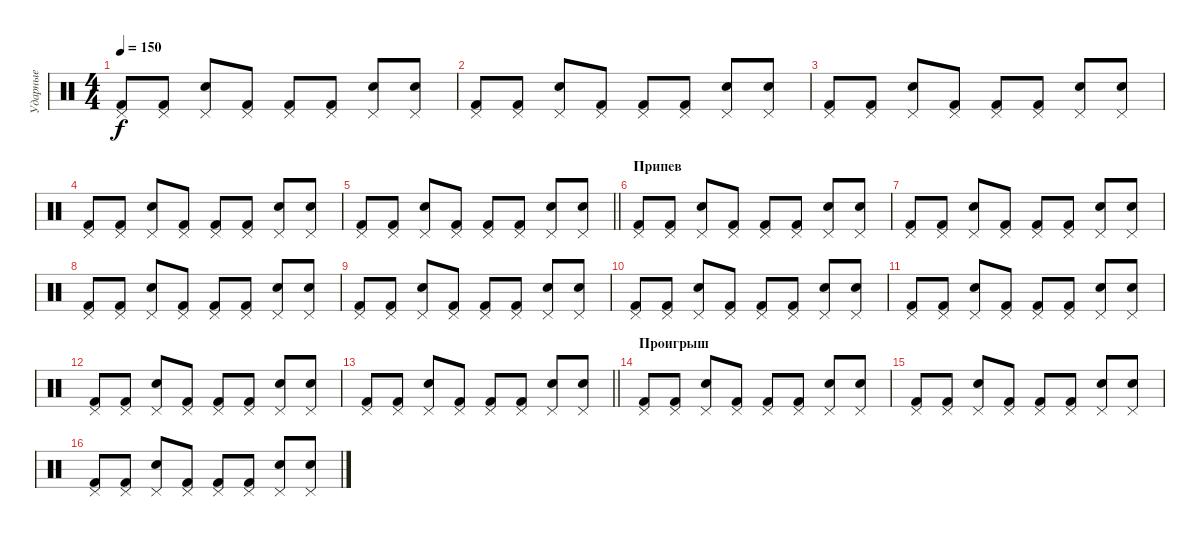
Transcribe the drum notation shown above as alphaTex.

\track ("Ударные" "Ударные") {instrument percussion}
\staff {score}
\articulation defaults
\ts (4 4)
\tempo 150
\clef neutral
\ks c
("Pedal Hi-Hat (hit)" "Kick (hit) 2").8{dy f} ("Pedal Hi-Hat (hit)" "Kick (hit) 2").8 ("Pedal Hi-Hat (hit)" "Electric Snare (hit)").8 ("Pedal Hi-Hat (hit)" "Kick (hit) 2").8 ("Pedal Hi-Hat (hit)" "Kick (hit) 2").8 ("Pedal Hi-Hat (hit)" "Kick (hit) 2").8 ("Pedal Hi-Hat (hit)" "Electric Snare (hit)").8 ("Pedal Hi-Hat (hit)" "Electric Snare (hit)").8 |
("Pedal Hi-Hat (hit)" "Kick (hit) 2").8 ("Pedal Hi-Hat (hit)" "Kick (hit) 2").8 ("Pedal Hi-Hat (hit)" "Electric Snare (hit)").8 ("Pedal Hi-Hat (hit)" "Kick (hit) 2").8 ("Pedal Hi-Hat (hit)" "Kick (hit) 2").8 ("Pedal Hi-Hat (hit)" "Kick (hit) 2").8 ("Pedal Hi-Hat (hit)" "Electric Snare (hit)").8 ("Pedal Hi-Hat (hit)" "Electric Snare (hit)").8 |
("Pedal Hi-Hat (hit)" "Kick (hit) 2").8 ("Pedal Hi-Hat (hit)" "Kick (hit) 2").8 ("Pedal Hi-Hat (hit)" "Electric Snare (hit)").8 ("Pedal Hi-Hat (hit)" "Kick (hit) 2").8 ("Pedal Hi-Hat (hit)" "Kick (hit) 2").8 ("Pedal Hi-Hat (hit)" "Kick (hit) 2").8 ("Pedal Hi-Hat (hit)" "Electric Snare (hit)").8 ("Pedal Hi-Hat (hit)" "Electric Snare (hit)").8 |
("Pedal Hi-Hat (hit)" "Kick (hit) 2").8 ("Pedal Hi-Hat (hit)" "Kick (hit) 2").8 ("Pedal Hi-Hat (hit)" "Electric Snare (hit)").8 ("Pedal Hi-Hat (hit)" "Kick (hit) 2").8 ("Pedal Hi-Hat (hit)" "Kick (hit) 2").8 ("Pedal Hi-Hat (hit)" "Kick (hit) 2").8 ("Pedal Hi-Hat (hit)" "Electric Snare (hit)").8 ("Pedal Hi-Hat (hit)" "Electric Snare (hit)").8 |
\barLineRight lightlight
("Pedal Hi-Hat (hit)" "Kick (hit) 2").8 ("Pedal Hi-Hat (hit)" "Kick (hit) 2").8 ("Pedal Hi-Hat (hit)" "Electric Snare (hit)").8 ("Pedal Hi-Hat (hit)" "Kick (hit) 2").8 ("Pedal Hi-Hat (hit)" "Kick (hit) 2").8 ("Pedal Hi-Hat (hit)" "Kick (hit) 2").8 ("Pedal Hi-Hat (hit)" "Electric Snare (hit)").8 ("Pedal Hi-Hat (hit)" "Electric Snare (hit)").8 |
\section ("" "Припев")
("Pedal Hi-Hat (hit)" "Kick (hit) 2").8 ("Pedal Hi-Hat (hit)" "Kick (hit) 2").8 ("Pedal Hi-Hat (hit)" "Electric Snare (hit)").8 ("Pedal Hi-Hat (hit)" "Kick (hit) 2").8 ("Pedal Hi-Hat (hit)" "Kick (hit) 2").8 ("Pedal Hi-Hat (hit)" "Kick (hit) 2").8 ("Pedal Hi-Hat (hit)" "Electric Snare (hit)").8 ("Pedal Hi-Hat (hit)" "Electric Snare (hit)").8 |
("Pedal Hi-Hat (hit)" "Kick (hit) 2").8 ("Pedal Hi-Hat (hit)" "Kick (hit) 2").8 ("Pedal Hi-Hat (hit)" "Electric Snare (hit)").8 ("Pedal Hi-Hat (hit)" "Kick (hit) 2").8 ("Pedal Hi-Hat (hit)" "Kick (hit) 2").8 ("Pedal Hi-Hat (hit)" "Kick (hit) 2").8 ("Pedal Hi-Hat (hit)" "Electric Snare (hit)").8 ("Pedal Hi-Hat (hit)" "Electric Snare (hit)").8 |
("Pedal Hi-Hat (hit)" "Kick (hit) 2").8 ("Pedal Hi-Hat (hit)" "Kick (hit) 2").8 ("Pedal Hi-Hat (hit)" "Electric Snare (hit)").8 ("Pedal Hi-Hat (hit)" "Kick (hit) 2").8 ("Pedal Hi-Hat (hit)" "Kick (hit) 2").8 ("Pedal Hi-Hat (hit)" "Kick (hit) 2").8 ("Pedal Hi-Hat (hit)" "Electric Snare (hit)").8 ("Pedal Hi-Hat (hit)" "Electric Snare (hit)").8 |
("Pedal Hi-Hat (hit)" "Kick (hit) 2").8 ("Pedal Hi-Hat (hit)" "Kick (hit) 2").8 ("Pedal Hi-Hat (hit)" "Electric Snare (hit)").8 ("Pedal Hi-Hat (hit)" "Kick (hit) 2").8 ("Pedal Hi-Hat (hit)" "Kick (hit) 2").8 ("Pedal Hi-Hat (hit)" "Kick (hit) 2").8 ("Pedal Hi-Hat (hit)" "Electric Snare (hit)").8 ("Pedal Hi-Hat (hit)" "Electric Snare (hit)").8 |
("Pedal Hi-Hat (hit)" "Kick (hit) 2").8 ("Pedal Hi-Hat (hit)" "Kick (hit) 2").8 ("Pedal Hi-Hat (hit)" "Electric Snare (hit)").8 ("Pedal Hi-Hat (hit)" "Kick (hit) 2").8 ("Pedal Hi-Hat (hit)" "Kick (hit) 2").8 ("Pedal Hi-Hat (hit)" "Kick (hit) 2").8 ("Pedal Hi-Hat (hit)" "Electric Snare (hit)").8 ("Pedal Hi-Hat (hit)" "Electric Snare (hit)").8 |
("Pedal Hi-Hat (hit)" "Kick (hit) 2").8 ("Pedal Hi-Hat (hit)" "Kick (hit) 2").8 ("Pedal Hi-Hat (hit)" "Electric Snare (hit)").8 ("Pedal Hi-Hat (hit)" "Kick (hit) 2").8 ("Pedal Hi-Hat (hit)" "Kick (hit) 2").8 ("Pedal Hi-Hat (hit)" "Kick (hit) 2").8 ("Pedal Hi-Hat (hit)" "Electric Snare (hit)").8 ("Pedal Hi-Hat (hit)" "Electric Snare (hit)").8 |
("Pedal Hi-Hat (hit)" "Kick (hit) 2").8 ("Pedal Hi-Hat (hit)" "Kick (hit) 2").8 ("Pedal Hi-Hat (hit)" "Electric Snare (hit)").8 ("Pedal Hi-Hat (hit)" "Kick (hit) 2").8 ("Pedal Hi-Hat (hit)" "Kick (hit) 2").8 ("Pedal Hi-Hat (hit)" "Kick (hit) 2").8 ("Pedal Hi-Hat (hit)" "Electric Snare (hit)").8 ("Pedal Hi-Hat (hit)" "Electric Snare (hit)").8 |
\barLineRight lightlight
("Pedal Hi-Hat (hit)" "Kick (hit) 2").8 ("Pedal Hi-Hat (hit)" "Kick (hit) 2").8 ("Pedal Hi-Hat (hit)" "Electric Snare (hit)").8 ("Pedal Hi-Hat (hit)" "Kick (hit) 2").8 ("Pedal Hi-Hat (hit)" "Kick (hit) 2").8 ("Pedal Hi-Hat (hit)" "Kick (hit) 2").8 ("Pedal Hi-Hat (hit)" "Electric Snare (hit)").8 ("Pedal Hi-Hat (hit)" "Electric Snare (hit)").8 |
\section ("" "Проигрыш")
("Pedal Hi-Hat (hit)" "Kick (hit) 2").8 ("Pedal Hi-Hat (hit)" "Kick (hit) 2").8 ("Pedal Hi-Hat (hit)" "Electric Snare (hit)").8 ("Pedal Hi-Hat (hit)" "Kick (hit) 2").8 ("Pedal Hi-Hat (hit)" "Kick (hit) 2").8 ("Pedal Hi-Hat (hit)" "Kick (hit) 2").8 ("Pedal Hi-Hat (hit)" "Electric Snare (hit)").8 ("Pedal Hi-Hat (hit)" "Electric Snare (hit)").8 |
("Pedal Hi-Hat (hit)" "Kick (hit) 2").8 ("Pedal Hi-Hat (hit)" "Kick (hit) 2").8 ("Pedal Hi-Hat (hit)" "Electric Snare (hit)").8 ("Pedal Hi-Hat (hit)" "Kick (hit) 2").8 ("Pedal Hi-Hat (hit)" "Kick (hit) 2").8 ("Pedal Hi-Hat (hit)" "Kick (hit) 2").8 ("Pedal Hi-Hat (hit)" "Electric Snare (hit)").8 ("Pedal Hi-Hat (hit)" "Electric Snare (hit)").8 |
("Pedal Hi-Hat (hit)" "Kick (hit) 2").8 ("Pedal Hi-Hat (hit)" "Kick (hit) 2").8 ("Pedal Hi-Hat (hit)" "Electric Snare (hit)").8 ("Pedal Hi-Hat (hit)" "Kick (hit) 2").8 ("Pedal Hi-Hat (hit)" "Kick (hit) 2").8 ("Pedal Hi-Hat (hit)" "Kick (hit) 2").8 ("Pedal Hi-Hat (hit)" "Electric Snare (hit)").8 ("Pedal Hi-Hat (hit)" "Electric Snare (hit)").8
